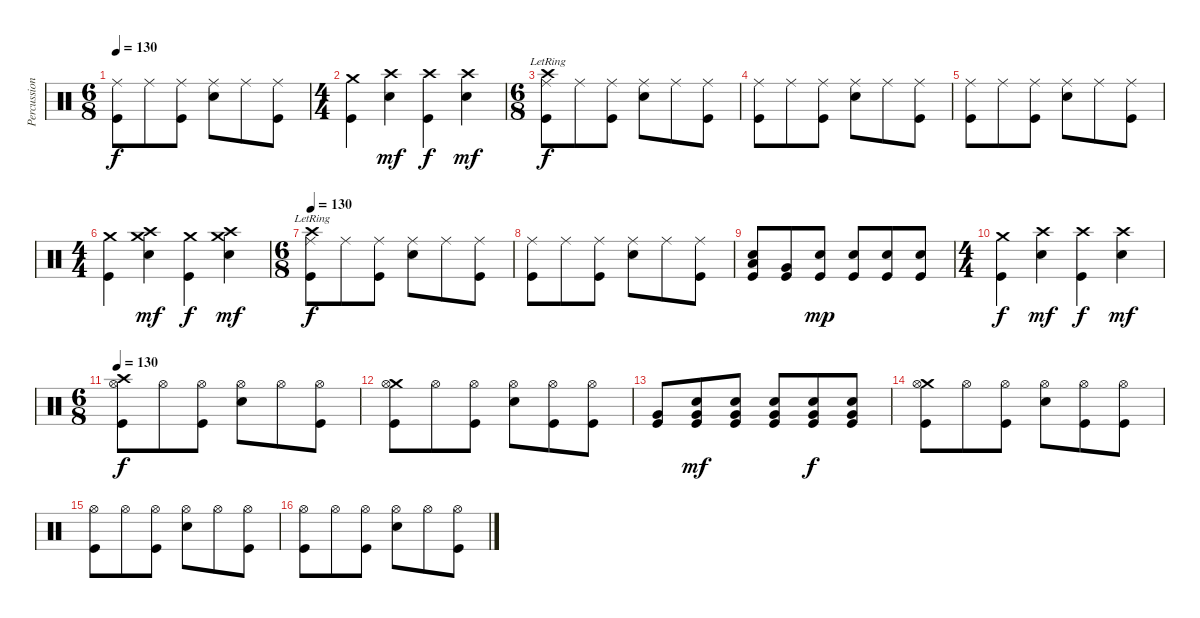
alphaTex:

\track ("Percussion" "Percussion") {instrument percussion}
\staff {score}
\articulation defaults
\ts (6 8)
\tempo 130
\clef neutral
\ks c
("Ride (middle)" "Kick (hit)").8{dy f} "Ride (middle)".8 ("Ride (middle)" "Kick (hit)").8 ("Ride (middle)" "Snare (hit) 2").8 "Ride (middle)".8 ("Ride (middle)" "Kick (hit)").8 |
\ts (4 4)
("Crash medium (hit)" "Kick (hit)").4 ("Crash high (hit)" "Snare (hit) 2").4{dy mf} ("Crash high (hit)" "Kick (hit)").4{dy f} ("Crash high (hit)" "Snare (hit) 2").4{dy mf} |
\ts (6 8)
("Crash high (hit)"{lr} "Ride (middle)" "Kick (hit)").8{dy f} "Ride (middle)".8 ("Ride (middle)" "Kick (hit)").8 ("Ride (middle)" "Snare (hit) 2").8 "Ride (middle)".8 ("Ride (middle)" "Kick (hit)").8 |
("Ride (middle)" "Kick (hit)").8 "Ride (middle)".8 ("Ride (middle)" "Kick (hit)").8 ("Ride (middle)" "Snare (hit) 2").8 "Ride (middle)".8 ("Ride (middle)" "Kick (hit)").8 |
("Ride (middle)" "Kick (hit)").8 "Ride (middle)".8 ("Ride (middle)" "Kick (hit)").8 ("Ride (middle)" "Snare (hit) 2").8 "Ride (middle)".8 ("Ride (middle)" "Kick (hit)").8 |
\ts (4 4)
("Crash medium (hit)" "Kick (hit)").4 ("Crash medium (hit)" "Crash high (hit)" "Snare (hit) 2").4{dy mf} ("Crash medium (hit)" "Kick (hit)").4{dy f} ("Crash medium (hit)" "Crash high (hit)" "Snare (hit) 2").4{dy mf} |
\ts (6 8)
\tempo 130
("Crash high (hit)"{lr} "Ride (middle)" "Kick (hit)").8{dy f} "Ride (middle)".8 ("Ride (middle)" "Kick (hit)").8 ("Ride (middle)" "Snare (hit) 2").8 "Ride (middle)".8 ("Ride (middle)" "Kick (hit)").8 |
("Ride (middle)" "Kick (hit)").8 "Ride (middle)".8 ("Ride (middle)" "Kick (hit)").8 ("Ride (middle)" "Snare (hit) 2").8 "Ride (middle)".8 ("Ride (middle)" "Kick (hit)").8 |
("Snare (hit) 2" "Low Tom (hit)" "Kick (hit)").8 ("Very Low Tom (hit)" "Kick (hit)").8 ("Snare (hit) 2" "Kick (hit)").8{dy mp} ("Snare (hit) 2" "Kick (hit)").8 ("Snare (hit) 2" "Kick (hit)").8 ("Snare (hit) 2" "Kick (hit)").8 |
\ts (4 4)
("Crash medium (hit)" "Kick (hit)").4{dy f} ("Crash high (hit)" "Snare (hit) 2").4{dy mf} ("Crash high (hit)" "Kick (hit)").4{dy f} ("Crash high (hit)" "Snare (hit) 2").4{dy mf} |
\ts (6 8)
\tempo 130
("Crash high (hit)" "Hi-Hat (open)" "Kick (hit)").8{dy f} "Hi-Hat (open)".8 ("Hi-Hat (open)" "Kick (hit)").8 ("Hi-Hat (open)" "Snare (hit) 2").8 "Hi-Hat (open)".8 ("Hi-Hat (open)" "Kick (hit)").8 |
("Crash medium (hit)" "Hi-Hat (open)" "Kick (hit)").8 "Hi-Hat (open)".8 ("Hi-Hat (open)" "Kick (hit)").8 ("Hi-Hat (open)" "Snare (hit) 2").8 ("Hi-Hat (open)" "Kick (hit)").8 ("Hi-Hat (open)" "Kick (hit)").8 |
("Very Low Tom (hit)" "Kick (hit)").8 ("Very Low Tom (hit)" "Snare (hit) 2" "Kick (hit)").8{dy mf} ("Very Low Tom (hit)" "Snare (hit) 2" "Kick (hit)").8 ("Very Low Tom (hit)" "Snare (hit) 2" "Kick (hit)").8 ("Very Low Tom (hit)" "Snare (hit) 2" "Kick (hit)").8{dy f} ("Very Low Tom (hit)" "Snare (hit) 2" "Kick (hit)").8 |
("Crash medium (hit)" "Hi-Hat (open)" "Kick (hit)").8 "Hi-Hat (open)".8 ("Hi-Hat (open)" "Kick (hit)").8 ("Hi-Hat (open)" "Snare (hit) 2").8 ("Hi-Hat (open)" "Kick (hit)").8 ("Hi-Hat (open)" "Kick (hit)").8 |
("Hi-Hat (open)" "Kick (hit)").8 "Hi-Hat (open)".8 ("Hi-Hat (open)" "Kick (hit)").8 ("Hi-Hat (open)" "Snare (hit) 2").8 "Hi-Hat (open)".8 ("Hi-Hat (open)" "Kick (hit)").8 |
("Hi-Hat (open)" "Kick (hit)").8 "Hi-Hat (open)".8 ("Hi-Hat (open)" "Kick (hit)").8 ("Hi-Hat (open)" "Snare (hit) 2").8 "Hi-Hat (open)".8 ("Hi-Hat (open)" "Kick (hit)").8
